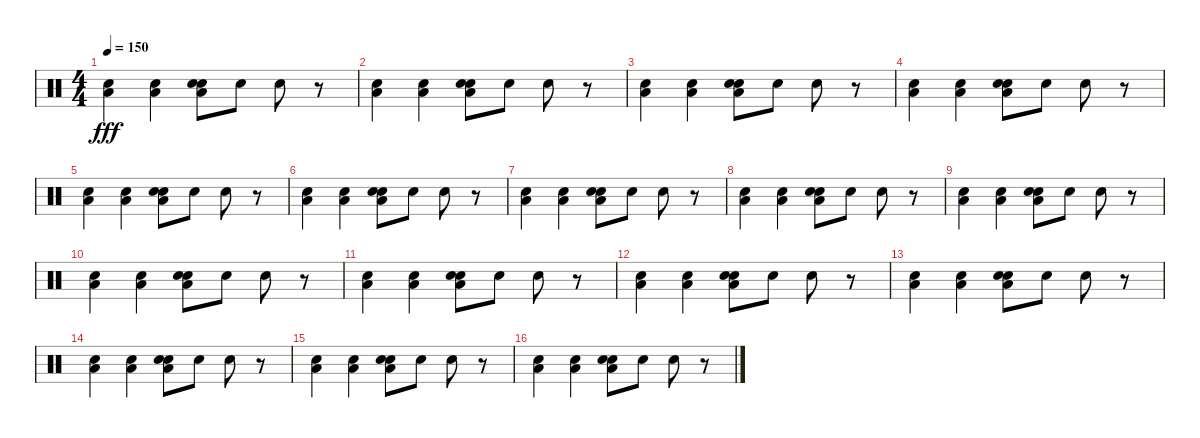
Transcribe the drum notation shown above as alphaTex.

\track "" {instrument percussion}
\staff {score}
\articulation defaults
\ts (4 4)
\tempo 150
\clef neutral
\ks c
("Low Floor Tom (hit)" "Electric Snare (hit)").4{dy fff} ("Low Floor Tom (hit)" "Electric Snare (hit)").4 ("Electric Snare (hit)" "Low Floor Tom (hit)" "Electric Snare (hit)").8 "Electric Snare (hit)".8 "Electric Snare (hit)".8 r.8 |
("Low Floor Tom (hit)" "Snare (hit) 2").4 ("Low Floor Tom (hit)" "Snare (hit) 2").4 ("Electric Snare (hit)" "Low Floor Tom (hit)" "Snare (hit) 2").8 "Electric Snare (hit)".8 "Electric Snare (hit)".8 r.8 |
("Low Floor Tom (hit)" "Snare (hit) 2").4 ("Low Floor Tom (hit)" "Snare (hit) 2").4 ("Electric Snare (hit)" "Low Floor Tom (hit)" "Snare (hit) 2").8 "Electric Snare (hit)".8 "Electric Snare (hit)".8 r.8 |
("Low Floor Tom (hit)" "Electric Snare (hit)").4 ("Low Floor Tom (hit)" "Electric Snare (hit)").4 ("Electric Snare (hit)" "Low Floor Tom (hit)" "Electric Snare (hit)").8 "Electric Snare (hit)".8 "Electric Snare (hit)".8 r.8 |
("Low Floor Tom (hit)" "Electric Snare (hit)").4 ("Low Floor Tom (hit)" "Electric Snare (hit)").4 ("Electric Snare (hit)" "Low Floor Tom (hit)" "Electric Snare (hit)").8 "Electric Snare (hit)".8 "Electric Snare (hit)".8 r.8 |
("Low Floor Tom (hit)" "Electric Snare (hit)").4 ("Low Floor Tom (hit)" "Electric Snare (hit)").4 ("Electric Snare (hit)" "Low Floor Tom (hit)" "Electric Snare (hit)").8 "Electric Snare (hit)".8 "Electric Snare (hit)".8 r.8 |
("Low Floor Tom (hit)" "Electric Snare (hit)").4 ("Low Floor Tom (hit)" "Electric Snare (hit)").4 ("Electric Snare (hit)" "Low Floor Tom (hit)" "Electric Snare (hit)").8 "Electric Snare (hit)".8 "Electric Snare (hit)".8 r.8 |
("Low Floor Tom (hit)" "Snare (hit) 2").4 ("Low Floor Tom (hit)" "Snare (hit) 2").4 ("Electric Snare (hit)" "Low Floor Tom (hit)" "Snare (hit) 2").8 "Electric Snare (hit)".8 "Electric Snare (hit)".8 r.8 |
("Low Floor Tom (hit)" "Snare (hit) 2").4 ("Low Floor Tom (hit)" "Snare (hit) 2").4 ("Electric Snare (hit)" "Low Floor Tom (hit)" "Snare (hit) 2").8 "Electric Snare (hit)".8 "Electric Snare (hit)".8 r.8 |
("Low Floor Tom (hit)" "Electric Snare (hit)").4 ("Low Floor Tom (hit)" "Electric Snare (hit)").4 ("Electric Snare (hit)" "Low Floor Tom (hit)" "Electric Snare (hit)").8 "Electric Snare (hit)".8 "Electric Snare (hit)".8 r.8 |
("Low Floor Tom (hit)" "Electric Snare (hit)").4 ("Low Floor Tom (hit)" "Electric Snare (hit)").4 ("Electric Snare (hit)" "Low Floor Tom (hit)" "Electric Snare (hit)").8 "Electric Snare (hit)".8 "Electric Snare (hit)".8 r.8 |
("Low Floor Tom (hit)" "Electric Snare (hit)").4 ("Low Floor Tom (hit)" "Electric Snare (hit)").4 ("Electric Snare (hit)" "Low Floor Tom (hit)" "Electric Snare (hit)").8 "Electric Snare (hit)".8 "Electric Snare (hit)".8 r.8 |
("Low Floor Tom (hit)" "Electric Snare (hit)").4 ("Low Floor Tom (hit)" "Electric Snare (hit)").4 ("Electric Snare (hit)" "Low Floor Tom (hit)" "Electric Snare (hit)").8 "Electric Snare (hit)".8 "Electric Snare (hit)".8 r.8 |
("Low Floor Tom (hit)" "Snare (hit) 2").4 ("Low Floor Tom (hit)" "Snare (hit) 2").4 ("Electric Snare (hit)" "Low Floor Tom (hit)" "Snare (hit) 2").8 "Electric Snare (hit)".8 "Electric Snare (hit)".8 r.8 |
("Low Floor Tom (hit)" "Snare (hit) 2").4 ("Low Floor Tom (hit)" "Snare (hit) 2").4 ("Electric Snare (hit)" "Low Floor Tom (hit)" "Snare (hit) 2").8 "Electric Snare (hit)".8 "Electric Snare (hit)".8 r.8 |
("Low Floor Tom (hit)" "Electric Snare (hit)").4 ("Low Floor Tom (hit)" "Electric Snare (hit)").4 ("Electric Snare (hit)" "Low Floor Tom (hit)" "Electric Snare (hit)").8 "Electric Snare (hit)".8 "Electric Snare (hit)".8 r.8
